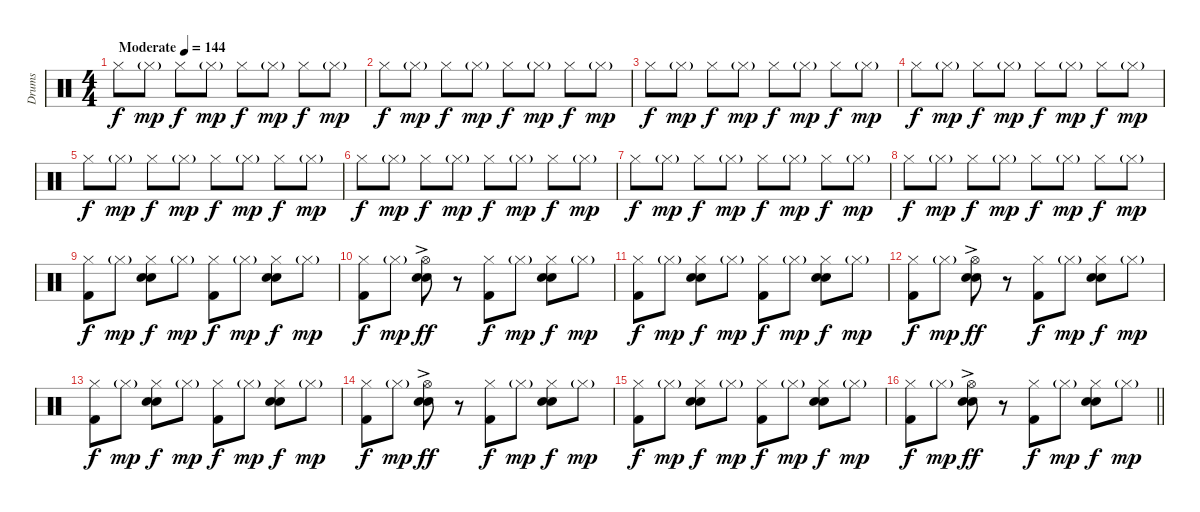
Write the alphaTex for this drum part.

\track ("Drums" "Drums") {instrument percussion}
\staff {score}
\articulation defaults
\ts (4 4)
\tempo (144 "Moderate")
\clef neutral
\ks c "Hi-Hat (closed)".8{dy f} "Hi-Hat (closed)"{g}.8{dy mp} "Hi-Hat (closed)".8{dy f} "Hi-Hat (closed)"{g}.8{dy mp} "Hi-Hat (closed)".8{dy f} "Hi-Hat (closed)"{g}.8{dy mp} "Hi-Hat (closed)".8{dy f} "Hi-Hat (closed)"{g}.8{dy mp}
|
"Hi-Hat (closed)".8{dy f} "Hi-Hat (closed)"{g}.8{dy mp} "Hi-Hat (closed)".8{dy f} "Hi-Hat (closed)"{g}.8{dy mp} "Hi-Hat (closed)".8{dy f} "Hi-Hat (closed)"{g}.8{dy mp} "Hi-Hat (closed)".8{dy f} "Hi-Hat (closed)"{g}.8{dy mp} |
"Hi-Hat (closed)".8{dy f} "Hi-Hat (closed)"{g}.8{dy mp} "Hi-Hat (closed)".8{dy f} "Hi-Hat (closed)"{g}.8{dy mp} "Hi-Hat (closed)".8{dy f} "Hi-Hat (closed)"{g}.8{dy mp} "Hi-Hat (closed)".8{dy f} "Hi-Hat (closed)"{g}.8{dy mp} |
"Hi-Hat (closed)".8{dy f} "Hi-Hat (closed)"{g}.8{dy mp} "Hi-Hat (closed)".8{dy f} "Hi-Hat (closed)"{g}.8{dy mp} "Hi-Hat (closed)".8{dy f} "Hi-Hat (closed)"{g}.8{dy mp} "Hi-Hat (closed)".8{dy f} "Hi-Hat (closed)"{g}.8{dy mp} |
"Hi-Hat (closed)".8{dy f} "Hi-Hat (closed)"{g}.8{dy mp} "Hi-Hat (closed)".8{dy f} "Hi-Hat (closed)"{g}.8{dy mp} "Hi-Hat (closed)".8{dy f} "Hi-Hat (closed)"{g}.8{dy mp} "Hi-Hat (closed)".8{dy f} "Hi-Hat (closed)"{g}.8{dy mp} |
"Hi-Hat (closed)".8{dy f} "Hi-Hat (closed)"{g}.8{dy mp} "Hi-Hat (closed)".8{dy f} "Hi-Hat (closed)"{g}.8{dy mp} "Hi-Hat (closed)".8{dy f} "Hi-Hat (closed)"{g}.8{dy mp} "Hi-Hat (closed)".8{dy f} "Hi-Hat (closed)"{g}.8{dy mp} |
"Hi-Hat (closed)".8{dy f} "Hi-Hat (closed)"{g}.8{dy mp} "Hi-Hat (closed)".8{dy f} "Hi-Hat (closed)"{g}.8{dy mp} "Hi-Hat (closed)".8{dy f} "Hi-Hat (closed)"{g}.8{dy mp} "Hi-Hat (closed)".8{dy f} "Hi-Hat (closed)"{g}.8{dy mp} |
"Hi-Hat (closed)".8{dy f} "Hi-Hat (closed)"{g}.8{dy mp} "Hi-Hat (closed)".8{dy f} "Hi-Hat (closed)"{g}.8{dy mp} "Hi-Hat (closed)".8{dy f} "Hi-Hat (closed)"{g}.8{dy mp} "Hi-Hat (closed)".8{dy f} "Hi-Hat (closed)"{g}.8{dy mp} |
("Hi-Hat (closed)" "Kick (hit) 2").8{dy f} "Hi-Hat (closed)"{g}.8{dy mp} ("Hi-Hat (closed)" "Electric Snare (hit)" "Snare (hit) 2").8{dy f} "Hi-Hat (closed)"{g}.8{dy mp} ("Hi-Hat (closed)" "Kick (hit) 2").8{dy f} "Hi-Hat (closed)"{g}.8{dy mp} ("Hi-Hat (closed)" "Electric Snare (hit)" "Snare (hit) 2").8{dy f} "Hi-Hat (closed)"{g}.8{dy mp} |
("Hi-Hat (closed)" "Kick (hit) 2").8{dy f} "Hi-Hat (closed)"{g}.8{dy mp} ("Hi-Hat (open)"{ac} "Electric Snare (hit)" "Snare (hit) 2").8{dy ff} r.8 ("Hi-Hat (closed)" "Kick (hit) 2").8{dy f} "Hi-Hat (closed)"{g}.8{dy mp} ("Hi-Hat (closed)" "Electric Snare (hit)" "Snare (hit) 2").8{dy f} "Hi-Hat (closed)"{g}.8{dy mp} |
("Hi-Hat (closed)" "Kick (hit) 2").8{dy f} "Hi-Hat (closed)"{g}.8{dy mp} ("Hi-Hat (closed)" "Electric Snare (hit)" "Snare (hit) 2").8{dy f} "Hi-Hat (closed)"{g}.8{dy mp} ("Hi-Hat (closed)" "Kick (hit) 2").8{dy f} "Hi-Hat (closed)"{g}.8{dy mp} ("Hi-Hat (closed)" "Electric Snare (hit)" "Snare (hit) 2").8{dy f} "Hi-Hat (closed)"{g}.8{dy mp} |
("Hi-Hat (closed)" "Kick (hit) 2").8{dy f} "Hi-Hat (closed)"{g}.8{dy mp} ("Hi-Hat (open)"{ac} "Electric Snare (hit)" "Snare (hit) 2").8{dy ff} r.8 ("Hi-Hat (closed)" "Kick (hit) 2").8{dy f} "Hi-Hat (closed)"{g}.8{dy mp} ("Hi-Hat (closed)" "Electric Snare (hit)" "Snare (hit) 2").8{dy f} "Hi-Hat (closed)"{g}.8{dy mp} |
("Hi-Hat (closed)" "Kick (hit) 2").8{dy f} "Hi-Hat (closed)"{g}.8{dy mp} ("Hi-Hat (closed)" "Electric Snare (hit)" "Snare (hit) 2").8{dy f} "Hi-Hat (closed)"{g}.8{dy mp} ("Hi-Hat (closed)" "Kick (hit) 2").8{dy f} "Hi-Hat (closed)"{g}.8{dy mp} ("Hi-Hat (closed)" "Electric Snare (hit)" "Snare (hit) 2").8{dy f} "Hi-Hat (closed)"{g}.8{dy mp} |
("Hi-Hat (closed)" "Kick (hit) 2").8{dy f} "Hi-Hat (closed)"{g}.8{dy mp} ("Hi-Hat (open)"{ac} "Electric Snare (hit)" "Snare (hit) 2").8{dy ff} r.8 ("Hi-Hat (closed)" "Kick (hit) 2").8{dy f} "Hi-Hat (closed)"{g}.8{dy mp} ("Hi-Hat (closed)" "Electric Snare (hit)" "Snare (hit) 2").8{dy f} "Hi-Hat (closed)"{g}.8{dy mp} |
("Hi-Hat (closed)" "Kick (hit) 2").8{dy f} "Hi-Hat (closed)"{g}.8{dy mp} ("Hi-Hat (closed)" "Electric Snare (hit)" "Snare (hit) 2").8{dy f} "Hi-Hat (closed)"{g}.8{dy mp} ("Hi-Hat (closed)" "Kick (hit) 2").8{dy f} "Hi-Hat (closed)"{g}.8{dy mp} ("Hi-Hat (closed)" "Electric Snare (hit)" "Snare (hit) 2").8{dy f} "Hi-Hat (closed)"{g}.8{dy mp} |
\barLineRight lightlight
("Hi-Hat (closed)" "Kick (hit) 2").8{dy f} "Hi-Hat (closed)"{g}.8{dy mp} ("Hi-Hat (open)"{ac} "Electric Snare (hit)" "Snare (hit) 2").8{dy ff} r.8 ("Hi-Hat (closed)" "Kick (hit) 2").8{dy f} "Hi-Hat (closed)"{g}.8{dy mp} ("Hi-Hat (closed)" "Electric Snare (hit)" "Snare (hit) 2").8{dy f} "Hi-Hat (closed)"{g}.8{dy mp}
